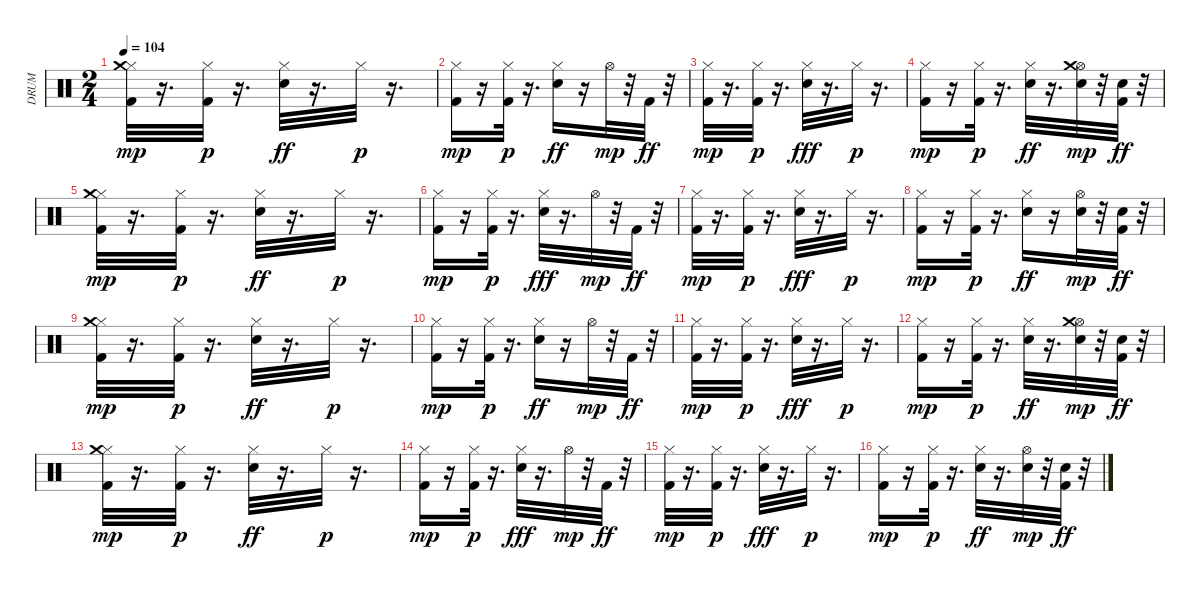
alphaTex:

\track ("DRUM    " "DRUM    ") {instrument percussion}
\staff {score}
\articulation defaults
\ts (2 4)
\tempo 104
\clef neutral
\ks c
("Kick (hit) 2" "Hi-Hat (closed)" "Crash medium (hit)").32{dy mp} r.16{d} ("Kick (hit) 2" "Hi-Hat (closed)").32{dy p} r.16{d} ("Hi-Hat (closed)" "Snare (hit) 2").32{dy ff} r.16{d} "Hi-Hat (closed)".32{dy p} r.16{d} |
("Kick (hit) 2" "Hi-Hat (closed)").16{dy mp} r.16 ("Kick (hit) 2" "Hi-Hat (closed)").32{dy p} r.16{d} ("Hi-Hat (closed)" "Snare (hit) 2").16{dy ff} r.16 "Hi-Hat (open)".32{dy mp} r.32 "Kick (hit) 2".32{dy ff} r.32 |
("Kick (hit) 2" "Hi-Hat (closed)").32{dy mp} r.16{d} ("Kick (hit) 2" "Hi-Hat (closed)").32{dy p} r.16{d} ("Hi-Hat (closed)" "Snare (hit) 2").32{dy fff} r.16{d} "Hi-Hat (closed)".32{dy p} r.16{d} |
("Kick (hit) 2" "Hi-Hat (closed)").16{dy mp} r.16 ("Kick (hit) 2" "Hi-Hat (closed)").32{dy p} r.16{d} ("Hi-Hat (closed)" "Snare (hit) 2").32{dy ff} r.16{d} ("Hi-Hat (open)" "Snare (hit) 2" "Crash medium (hit)").32{dy mp} r.32 ("Kick (hit) 2" "Snare (hit) 2").32{dy ff} r.32 |
("Kick (hit) 2" "Hi-Hat (closed)" "Crash medium (hit)").32{dy mp} r.16{d} ("Kick (hit) 2" "Hi-Hat (closed)").32{dy p} r.16{d} ("Hi-Hat (closed)" "Snare (hit) 2").32{dy ff} r.16{d} "Hi-Hat (closed)".32{dy p} r.16{d} |
("Kick (hit) 2" "Hi-Hat (closed)").16{dy mp} r.16 ("Kick (hit) 2" "Hi-Hat (closed)").32{dy p} r.16{d} ("Hi-Hat (closed)" "Snare (hit) 2").32{dy fff} r.16{d} "Hi-Hat (open)".32{dy mp} r.32 "Kick (hit) 2".32{dy ff} r.32 |
("Kick (hit) 2" "Hi-Hat (closed)").32{dy mp} r.16{d} ("Kick (hit) 2" "Hi-Hat (closed)").32{dy p} r.16{d} ("Hi-Hat (closed)" "Snare (hit) 2").32{dy fff} r.16{d} "Hi-Hat (closed)".32{dy p} r.16{d} |
("Kick (hit) 2" "Hi-Hat (closed)").16{dy mp} r.16 ("Kick (hit) 2" "Hi-Hat (closed)").32{dy p} r.16{d} ("Hi-Hat (closed)" "Snare (hit) 2").16{dy ff} r.16 ("Hi-Hat (open)" "Snare (hit) 2").32{dy mp} r.32 ("Kick (hit) 2" "Snare (hit) 2").32{dy ff} r.32 |
("Kick (hit) 2" "Hi-Hat (closed)" "Crash medium (hit)").32{dy mp} r.16{d} ("Kick (hit) 2" "Hi-Hat (closed)").32{dy p} r.16{d} ("Hi-Hat (closed)" "Snare (hit) 2").32{dy ff} r.16{d} "Hi-Hat (closed)".32{dy p} r.16{d} |
("Kick (hit) 2" "Hi-Hat (closed)").16{dy mp} r.16 ("Kick (hit) 2" "Hi-Hat (closed)").32{dy p} r.16{d} ("Hi-Hat (closed)" "Snare (hit) 2").16{dy ff} r.16 "Hi-Hat (open)".32{dy mp} r.32 "Kick (hit) 2".32{dy ff} r.32 |
("Kick (hit) 2" "Hi-Hat (closed)").32{dy mp} r.16{d} ("Kick (hit) 2" "Hi-Hat (closed)").32{dy p} r.16{d} ("Hi-Hat (closed)" "Snare (hit) 2").32{dy fff} r.16{d} "Hi-Hat (closed)".32{dy p} r.16{d} |
("Kick (hit) 2" "Hi-Hat (closed)").16{dy mp} r.16 ("Kick (hit) 2" "Hi-Hat (closed)").32{dy p} r.16{d} ("Hi-Hat (closed)" "Snare (hit) 2").32{dy ff} r.16{d} ("Hi-Hat (open)" "Snare (hit) 2" "Crash medium (hit)").32{dy mp} r.32 ("Kick (hit) 2" "Snare (hit) 2").32{dy ff} r.32 |
("Kick (hit) 2" "Hi-Hat (closed)" "Crash medium (hit)").32{dy mp} r.16{d} ("Kick (hit) 2" "Hi-Hat (closed)").32{dy p} r.16{d} ("Hi-Hat (closed)" "Snare (hit) 2").32{dy ff} r.16{d} "Hi-Hat (closed)".32{dy p} r.16{d} |
("Kick (hit) 2" "Hi-Hat (closed)").16{dy mp} r.16 ("Kick (hit) 2" "Hi-Hat (closed)").32{dy p} r.16{d} ("Hi-Hat (closed)" "Snare (hit) 2").32{dy fff} r.16{d} "Hi-Hat (open)".32{dy mp} r.32 "Kick (hit) 2".32{dy ff} r.32 |
("Kick (hit) 2" "Hi-Hat (closed)").32{dy mp} r.16{d} ("Kick (hit) 2" "Hi-Hat (closed)").32{dy p} r.16{d} ("Hi-Hat (closed)" "Snare (hit) 2").32{dy fff} r.16{d} "Hi-Hat (closed)".32{dy p} r.16{d} |
("Kick (hit) 2" "Hi-Hat (closed)").16{dy mp} r.16 ("Kick (hit) 2" "Hi-Hat (closed)").32{dy p} r.16{d} ("Hi-Hat (closed)" "Snare (hit) 2").32{dy ff} r.16{d} ("Hi-Hat (open)" "Snare (hit) 2").32{dy mp} r.32 ("Kick (hit) 2" "Snare (hit) 2").32{dy ff} r.32
